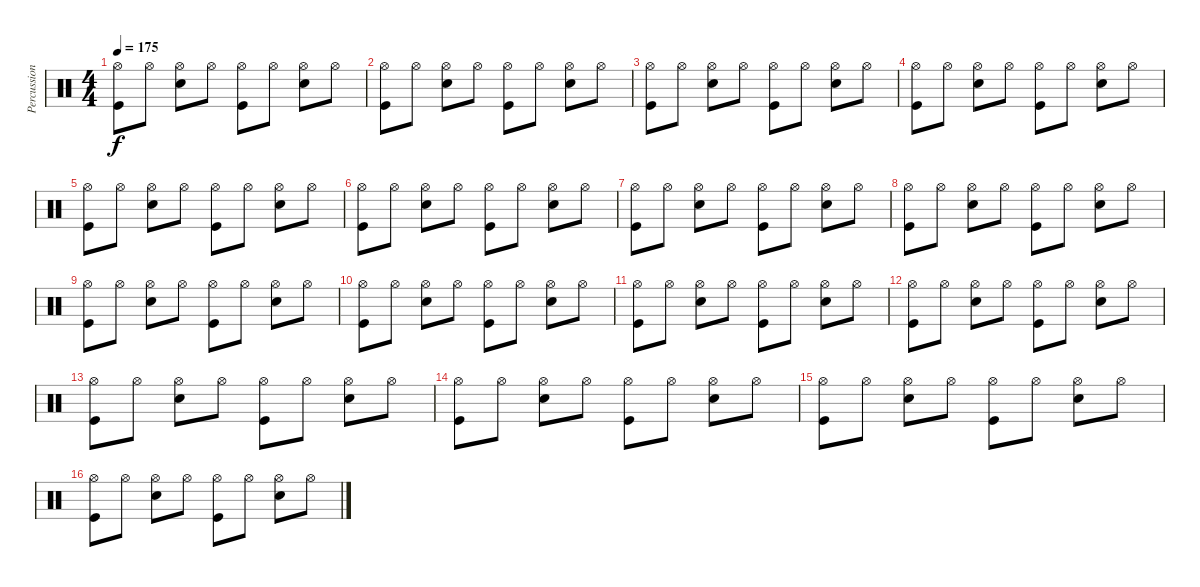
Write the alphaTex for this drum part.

\track ("Percussion" "Percussion") {instrument percussion}
\staff {score}
\articulation defaults
\ts (4 4)
\tempo 175
\clef neutral
\ks c
("Hi-Hat (open)" "Kick (hit)").8{dy f} "Hi-Hat (open)".8 ("Hi-Hat (open)" "Snare (hit) 2").8 "Hi-Hat (open)".8 ("Hi-Hat (open)" "Kick (hit)").8 "Hi-Hat (open)".8 ("Hi-Hat (open)" "Snare (hit) 2").8 "Hi-Hat (open)".8 |
("Hi-Hat (open)" "Kick (hit)").8 "Hi-Hat (open)".8 ("Hi-Hat (open)" "Snare (hit) 2").8 "Hi-Hat (open)".8 ("Hi-Hat (open)" "Kick (hit)").8 "Hi-Hat (open)".8 ("Hi-Hat (open)" "Snare (hit) 2").8 "Hi-Hat (open)".8 |
("Hi-Hat (open)" "Kick (hit)").8 "Hi-Hat (open)".8 ("Hi-Hat (open)" "Snare (hit) 2").8 "Hi-Hat (open)".8 ("Hi-Hat (open)" "Kick (hit)").8 "Hi-Hat (open)".8 ("Hi-Hat (open)" "Snare (hit) 2").8 "Hi-Hat (open)".8 |
("Hi-Hat (open)" "Kick (hit)").8 "Hi-Hat (open)".8 ("Hi-Hat (open)" "Snare (hit) 2").8 "Hi-Hat (open)".8 ("Hi-Hat (open)" "Kick (hit)").8 "Hi-Hat (open)".8 ("Hi-Hat (open)" "Snare (hit) 2").8 "Hi-Hat (open)".8 |
("Hi-Hat (open)" "Kick (hit)").8 "Hi-Hat (open)".8 ("Hi-Hat (open)" "Snare (hit) 2").8 "Hi-Hat (open)".8 ("Hi-Hat (open)" "Kick (hit)").8 "Hi-Hat (open)".8 ("Hi-Hat (open)" "Snare (hit) 2").8 "Hi-Hat (open)".8 |
("Hi-Hat (open)" "Kick (hit)").8 "Hi-Hat (open)".8 ("Hi-Hat (open)" "Snare (hit) 2").8 "Hi-Hat (open)".8 ("Hi-Hat (open)" "Kick (hit)").8 "Hi-Hat (open)".8 ("Hi-Hat (open)" "Snare (hit) 2").8 "Hi-Hat (open)".8 |
("Hi-Hat (open)" "Kick (hit)").8 "Hi-Hat (open)".8 ("Hi-Hat (open)" "Snare (hit) 2").8 "Hi-Hat (open)".8 ("Hi-Hat (open)" "Kick (hit)").8 "Hi-Hat (open)".8 ("Hi-Hat (open)" "Snare (hit) 2").8 "Hi-Hat (open)".8 |
("Hi-Hat (open)" "Kick (hit)").8 "Hi-Hat (open)".8 ("Hi-Hat (open)" "Snare (hit) 2").8 "Hi-Hat (open)".8 ("Hi-Hat (open)" "Kick (hit)").8 "Hi-Hat (open)".8 ("Hi-Hat (open)" "Snare (hit) 2").8 "Hi-Hat (open)".8 |
("Hi-Hat (open)" "Kick (hit)").8 "Hi-Hat (open)".8 ("Hi-Hat (open)" "Snare (hit) 2").8 "Hi-Hat (open)".8 ("Hi-Hat (open)" "Kick (hit)").8 "Hi-Hat (open)".8 ("Hi-Hat (open)" "Snare (hit) 2").8 "Hi-Hat (open)".8 |
("Hi-Hat (open)" "Kick (hit)").8 "Hi-Hat (open)".8 ("Hi-Hat (open)" "Snare (hit) 2").8 "Hi-Hat (open)".8 ("Hi-Hat (open)" "Kick (hit)").8 "Hi-Hat (open)".8 ("Hi-Hat (open)" "Snare (hit) 2").8 "Hi-Hat (open)".8 |
("Hi-Hat (open)" "Kick (hit)").8 "Hi-Hat (open)".8 ("Hi-Hat (open)" "Snare (hit) 2").8 "Hi-Hat (open)".8 ("Hi-Hat (open)" "Kick (hit)").8 "Hi-Hat (open)".8 ("Hi-Hat (open)" "Snare (hit) 2").8 "Hi-Hat (open)".8 |
("Hi-Hat (open)" "Kick (hit)").8 "Hi-Hat (open)".8 ("Hi-Hat (open)" "Snare (hit) 2").8 "Hi-Hat (open)".8 ("Hi-Hat (open)" "Kick (hit)").8 "Hi-Hat (open)".8 ("Hi-Hat (open)" "Snare (hit) 2").8 "Hi-Hat (open)".8 |
("Hi-Hat (open)" "Kick (hit)").8 "Hi-Hat (open)".8 ("Hi-Hat (open)" "Snare (hit) 2").8 "Hi-Hat (open)".8 ("Hi-Hat (open)" "Kick (hit)").8 "Hi-Hat (open)".8 ("Hi-Hat (open)" "Snare (hit) 2").8 "Hi-Hat (open)".8 |
("Hi-Hat (open)" "Kick (hit)").8 "Hi-Hat (open)".8 ("Hi-Hat (open)" "Snare (hit) 2").8 "Hi-Hat (open)".8 ("Hi-Hat (open)" "Kick (hit)").8 "Hi-Hat (open)".8 ("Hi-Hat (open)" "Snare (hit) 2").8 "Hi-Hat (open)".8 |
("Hi-Hat (open)" "Kick (hit)").8 "Hi-Hat (open)".8 ("Hi-Hat (open)" "Snare (hit) 2").8 "Hi-Hat (open)".8 ("Hi-Hat (open)" "Kick (hit)").8 "Hi-Hat (open)".8 ("Hi-Hat (open)" "Snare (hit) 2").8 "Hi-Hat (open)".8 |
("Hi-Hat (open)" "Kick (hit)").8 "Hi-Hat (open)".8 ("Hi-Hat (open)" "Snare (hit) 2").8 "Hi-Hat (open)".8 ("Hi-Hat (open)" "Kick (hit)").8 "Hi-Hat (open)".8 ("Hi-Hat (open)" "Snare (hit) 2").8 "Hi-Hat (open)".8
